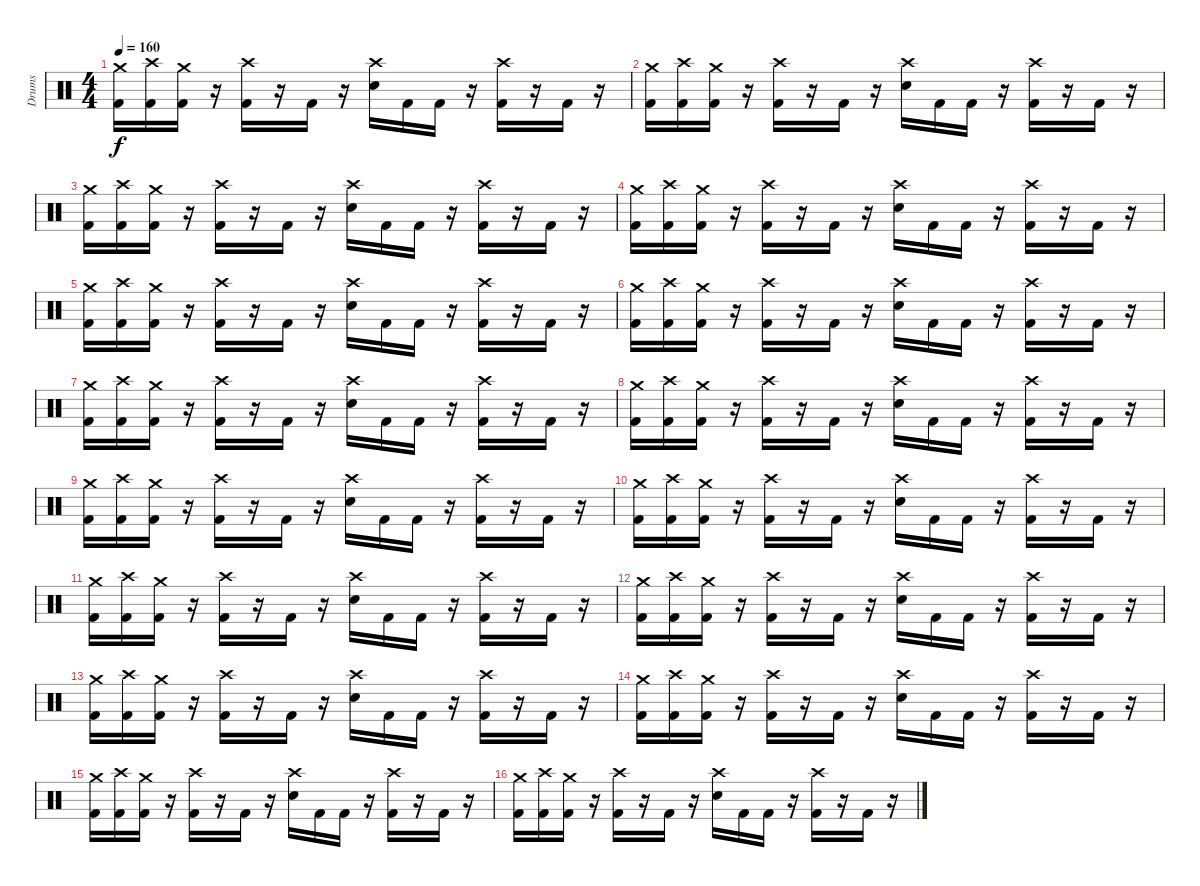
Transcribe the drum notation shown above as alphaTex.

\track ("Drums" "Drums") {instrument percussion}
\staff {score}
\articulation defaults
\ts (4 4)
\tempo 160
\clef neutral
\ks c
("Crash medium (hit)" "Kick (hit) 2").16{dy f} ("Crash high (hit)" "Kick (hit) 2").16 ("Crash medium (hit)" "Kick (hit) 2").16 r.16 ("Crash high (hit)" "Kick (hit) 2").16 r.16 "Kick (hit) 2".16 r.16 ("Crash high (hit)" "Electric Snare (hit)").16 "Kick (hit) 2".16 "Kick (hit) 2".16 r.16 ("Crash high (hit)" "Kick (hit) 2").16 r.16 "Kick (hit) 2".16 r.16 |
("Crash medium (hit)" "Kick (hit) 2").16 ("Crash high (hit)" "Kick (hit) 2").16 ("Crash medium (hit)" "Kick (hit) 2").16 r.16 ("Crash high (hit)" "Kick (hit) 2").16 r.16 "Kick (hit) 2".16 r.16 ("Crash high (hit)" "Electric Snare (hit)").16 "Kick (hit) 2".16 "Kick (hit) 2".16 r.16 ("Crash high (hit)" "Kick (hit) 2").16 r.16 "Kick (hit) 2".16 r.16 |
("Crash medium (hit)" "Kick (hit) 2").16 ("Crash high (hit)" "Kick (hit) 2").16 ("Crash medium (hit)" "Kick (hit) 2").16 r.16 ("Crash high (hit)" "Kick (hit) 2").16 r.16 "Kick (hit) 2".16 r.16 ("Crash high (hit)" "Electric Snare (hit)").16 "Kick (hit) 2".16 "Kick (hit) 2".16 r.16 ("Crash high (hit)" "Kick (hit) 2").16 r.16 "Kick (hit) 2".16 r.16 |
("Crash medium (hit)" "Kick (hit) 2").16 ("Crash high (hit)" "Kick (hit) 2").16 ("Crash medium (hit)" "Kick (hit) 2").16 r.16 ("Crash high (hit)" "Kick (hit) 2").16 r.16 "Kick (hit) 2".16 r.16 ("Crash high (hit)" "Electric Snare (hit)").16 "Kick (hit) 2".16 "Kick (hit) 2".16 r.16 ("Crash high (hit)" "Kick (hit) 2").16 r.16 "Kick (hit) 2".16 r.16 |
("Crash medium (hit)" "Kick (hit) 2").16 ("Crash high (hit)" "Kick (hit) 2").16 ("Crash medium (hit)" "Kick (hit) 2").16 r.16 ("Crash high (hit)" "Kick (hit) 2").16 r.16 "Kick (hit) 2".16 r.16 ("Crash high (hit)" "Electric Snare (hit)").16 "Kick (hit) 2".16 "Kick (hit) 2".16 r.16 ("Crash high (hit)" "Kick (hit) 2").16 r.16 "Kick (hit) 2".16 r.16 |
("Crash medium (hit)" "Kick (hit) 2").16 ("Crash high (hit)" "Kick (hit) 2").16 ("Crash medium (hit)" "Kick (hit) 2").16 r.16 ("Crash high (hit)" "Kick (hit) 2").16 r.16 "Kick (hit) 2".16 r.16 ("Crash high (hit)" "Electric Snare (hit)").16 "Kick (hit) 2".16 "Kick (hit) 2".16 r.16 ("Crash high (hit)" "Kick (hit) 2").16 r.16 "Kick (hit) 2".16 r.16 |
("Crash medium (hit)" "Kick (hit) 2").16 ("Crash high (hit)" "Kick (hit) 2").16 ("Crash medium (hit)" "Kick (hit) 2").16 r.16 ("Crash high (hit)" "Kick (hit) 2").16 r.16 "Kick (hit) 2".16 r.16 ("Crash high (hit)" "Electric Snare (hit)").16 "Kick (hit) 2".16 "Kick (hit) 2".16 r.16 ("Crash high (hit)" "Kick (hit) 2").16 r.16 "Kick (hit) 2".16 r.16 |
("Crash medium (hit)" "Kick (hit) 2").16 ("Crash high (hit)" "Kick (hit) 2").16 ("Crash medium (hit)" "Kick (hit) 2").16 r.16 ("Crash high (hit)" "Kick (hit) 2").16 r.16 "Kick (hit) 2".16 r.16 ("Crash high (hit)" "Electric Snare (hit)").16 "Kick (hit) 2".16 "Kick (hit) 2".16 r.16 ("Crash high (hit)" "Kick (hit) 2").16 r.16 "Kick (hit) 2".16 r.16 |
("Crash medium (hit)" "Kick (hit) 2").16 ("Crash high (hit)" "Kick (hit) 2").16 ("Crash medium (hit)" "Kick (hit) 2").16 r.16 ("Crash high (hit)" "Kick (hit) 2").16 r.16 "Kick (hit) 2".16 r.16 ("Crash high (hit)" "Electric Snare (hit)").16 "Kick (hit) 2".16 "Kick (hit) 2".16 r.16 ("Crash high (hit)" "Kick (hit) 2").16 r.16 "Kick (hit) 2".16 r.16 |
("Crash medium (hit)" "Kick (hit) 2").16 ("Crash high (hit)" "Kick (hit) 2").16 ("Crash medium (hit)" "Kick (hit) 2").16 r.16 ("Crash high (hit)" "Kick (hit) 2").16 r.16 "Kick (hit) 2".16 r.16 ("Crash high (hit)" "Electric Snare (hit)").16 "Kick (hit) 2".16 "Kick (hit) 2".16 r.16 ("Crash high (hit)" "Kick (hit) 2").16 r.16 "Kick (hit) 2".16 r.16 |
("Crash medium (hit)" "Kick (hit) 2").16 ("Crash high (hit)" "Kick (hit) 2").16 ("Crash medium (hit)" "Kick (hit) 2").16 r.16 ("Crash high (hit)" "Kick (hit) 2").16 r.16 "Kick (hit) 2".16 r.16 ("Crash high (hit)" "Electric Snare (hit)").16 "Kick (hit) 2".16 "Kick (hit) 2".16 r.16 ("Crash high (hit)" "Kick (hit) 2").16 r.16 "Kick (hit) 2".16 r.16 |
("Crash medium (hit)" "Kick (hit) 2").16 ("Crash high (hit)" "Kick (hit) 2").16 ("Crash medium (hit)" "Kick (hit) 2").16 r.16 ("Crash high (hit)" "Kick (hit) 2").16 r.16 "Kick (hit) 2".16 r.16 ("Crash high (hit)" "Electric Snare (hit)").16 "Kick (hit) 2".16 "Kick (hit) 2".16 r.16 ("Crash high (hit)" "Kick (hit) 2").16 r.16 "Kick (hit) 2".16 r.16 |
("Crash medium (hit)" "Kick (hit) 2").16{volume 9} ("Crash high (hit)" "Kick (hit) 2").16 ("Crash medium (hit)" "Kick (hit) 2").16 r.16 ("Crash high (hit)" "Kick (hit) 2").16 r.16 "Kick (hit) 2".16 r.16 ("Crash high (hit)" "Electric Snare (hit)").16 "Kick (hit) 2".16 "Kick (hit) 2".16 r.16 ("Crash high (hit)" "Kick (hit) 2").16 r.16 "Kick (hit) 2".16 r.16 |
("Crash medium (hit)" "Kick (hit) 2").16 ("Crash high (hit)" "Kick (hit) 2").16 ("Crash medium (hit)" "Kick (hit) 2").16 r.16 ("Crash high (hit)" "Kick (hit) 2").16 r.16 "Kick (hit) 2".16 r.16 ("Crash high (hit)" "Electric Snare (hit)").16 "Kick (hit) 2".16 "Kick (hit) 2".16 r.16 ("Crash high (hit)" "Kick (hit) 2").16 r.16 "Kick (hit) 2".16 r.16 |
("Crash medium (hit)" "Kick (hit) 2").16 ("Crash high (hit)" "Kick (hit) 2").16 ("Crash medium (hit)" "Kick (hit) 2").16 r.16 ("Crash high (hit)" "Kick (hit) 2").16 r.16 "Kick (hit) 2".16 r.16 ("Crash high (hit)" "Electric Snare (hit)").16 "Kick (hit) 2".16 "Kick (hit) 2".16 r.16 ("Crash high (hit)" "Kick (hit) 2").16 r.16 "Kick (hit) 2".16 r.16 |
("Crash medium (hit)" "Kick (hit) 2").16 ("Crash high (hit)" "Kick (hit) 2").16 ("Crash medium (hit)" "Kick (hit) 2").16 r.16 ("Crash high (hit)" "Kick (hit) 2").16 r.16 "Kick (hit) 2".16 r.16 ("Crash high (hit)" "Electric Snare (hit)").16 "Kick (hit) 2".16 "Kick (hit) 2".16 r.16 ("Crash high (hit)" "Kick (hit) 2").16 r.16 "Kick (hit) 2".16 r.16
